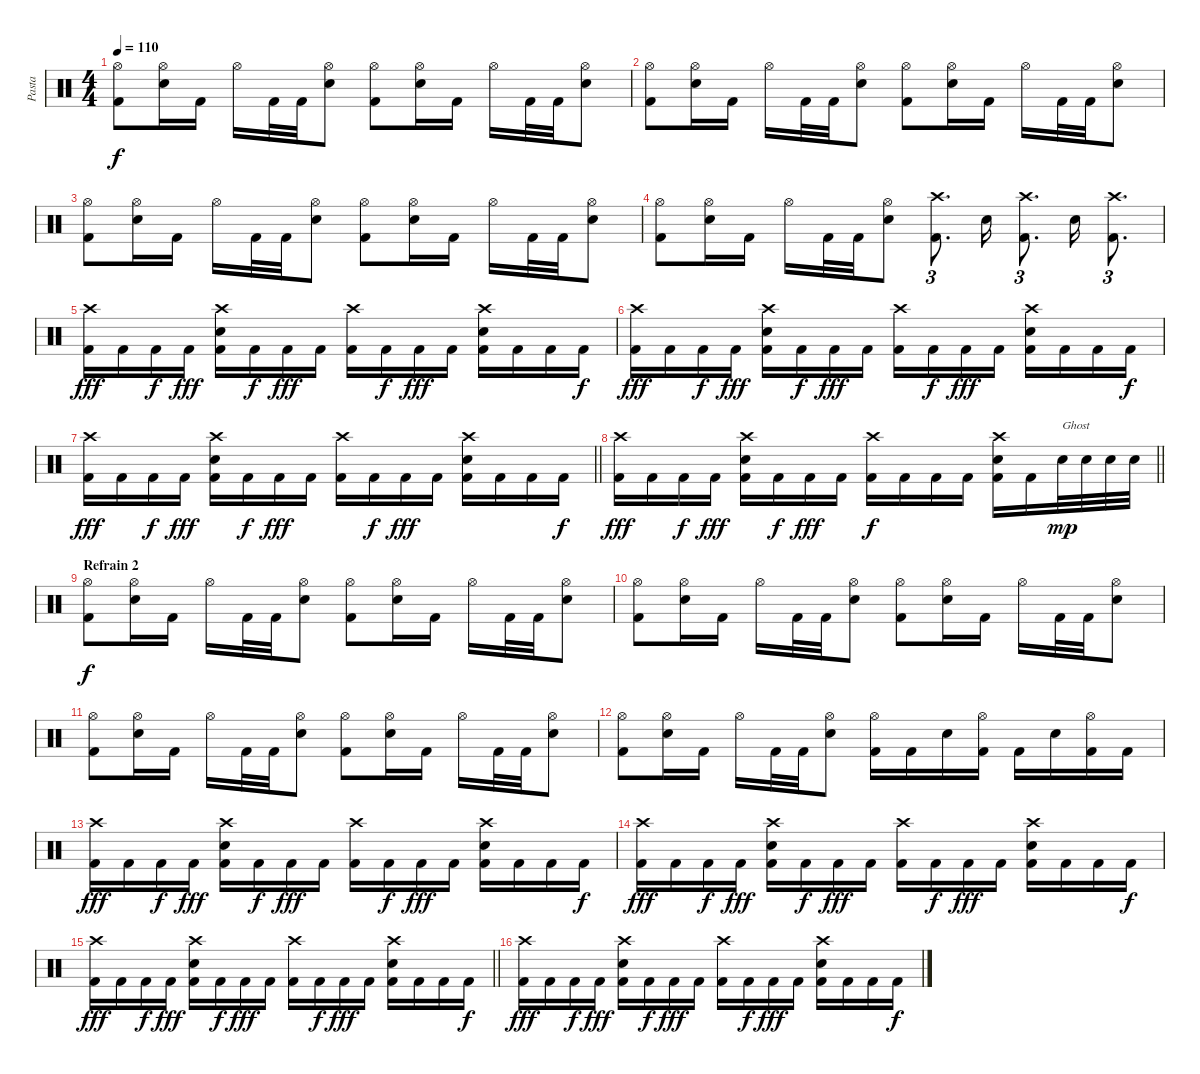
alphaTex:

\track ("Pasta" "Pasta") {instrument percussion}
\staff {score}
\articulation defaults
\ts (4 4)
\tempo 110
\clef neutral
\ks c
("Hi-Hat (open)" "Kick (hit) 2").8{dy f} ("Hi-Hat (open)" "Electric Snare (hit)").16 "Kick (hit) 2".16 "Hi-Hat (open)".16 "Kick (hit) 2".32 "Kick (hit) 2".32 ("Hi-Hat (open)" "Electric Snare (hit)").8 ("Hi-Hat (open)" "Kick (hit) 2").8 ("Hi-Hat (open)" "Electric Snare (hit)").16 "Kick (hit) 2".16 "Hi-Hat (open)".16 "Kick (hit) 2".32 "Kick (hit) 2".32 ("Hi-Hat (open)" "Electric Snare (hit)").8 |
("Hi-Hat (open)" "Kick (hit) 2").8 ("Hi-Hat (open)" "Electric Snare (hit)").16 "Kick (hit) 2".16 "Hi-Hat (open)".16 "Kick (hit) 2".32 "Kick (hit) 2".32 ("Hi-Hat (open)" "Electric Snare (hit)").8 ("Hi-Hat (open)" "Kick (hit) 2").8 ("Hi-Hat (open)" "Electric Snare (hit)").16 "Kick (hit) 2".16 "Hi-Hat (open)".16 "Kick (hit) 2".32 "Kick (hit) 2".32 ("Hi-Hat (open)" "Electric Snare (hit)").8 |
("Hi-Hat (open)" "Kick (hit) 2").8 ("Hi-Hat (open)" "Electric Snare (hit)").16 "Kick (hit) 2".16 "Hi-Hat (open)".16 "Kick (hit) 2".32 "Kick (hit) 2".32 ("Hi-Hat (open)" "Electric Snare (hit)").8 ("Hi-Hat (open)" "Kick (hit) 2").8 ("Hi-Hat (open)" "Electric Snare (hit)").16 "Kick (hit) 2".16 "Hi-Hat (open)".16 "Kick (hit) 2".32 "Kick (hit) 2".32 ("Hi-Hat (open)" "Electric Snare (hit)").8 |
("Hi-Hat (open)" "Kick (hit) 2").8 ("Hi-Hat (open)" "Electric Snare (hit)").16 "Kick (hit) 2".16 "Hi-Hat (open)".16 "Kick (hit) 2".32 "Kick (hit) 2".32 ("Hi-Hat (open)" "Electric Snare (hit)").8 ("Crash high (hit)" "Kick (hit) 2").8{d tu (3 2)} "Electric Snare (hit)".16 ("Crash high (hit)" "Kick (hit) 2").8{d tu (3 2)} "Electric Snare (hit)".16 ("Crash high (hit)" "Kick (hit) 2").8{d tu (3 2)} |
("Crash high (hit)" "Kick (hit) 2").16{dy fff} "Kick (hit) 2".16 "Kick (hit) 2".16{dy f} "Kick (hit) 2".16{dy fff} ("Crash high (hit)" "Electric Snare (hit)" "Kick (hit) 2").16 "Kick (hit) 2".16{dy f} "Kick (hit) 2".16{dy fff} "Kick (hit) 2".16 ("Crash high (hit)" "Kick (hit) 2").16 "Kick (hit) 2".16{dy f} "Kick (hit) 2".16{dy fff} "Kick (hit) 2".16 ("Crash high (hit)" "Electric Snare (hit)" "Kick (hit) 2").16 "Kick (hit) 2".16 "Kick (hit) 2".16 "Kick (hit) 2".16{dy f} |
("Crash high (hit)" "Kick (hit) 2").16{dy fff} "Kick (hit) 2".16 "Kick (hit) 2".16{dy f} "Kick (hit) 2".16{dy fff} ("Crash high (hit)" "Electric Snare (hit)" "Kick (hit) 2").16 "Kick (hit) 2".16{dy f} "Kick (hit) 2".16{dy fff} "Kick (hit) 2".16 ("Crash high (hit)" "Kick (hit) 2").16 "Kick (hit) 2".16{dy f} "Kick (hit) 2".16{dy fff} "Kick (hit) 2".16 ("Crash high (hit)" "Electric Snare (hit)" "Kick (hit) 2").16 "Kick (hit) 2".16 "Kick (hit) 2".16 "Kick (hit) 2".16{dy f} |
\barLineRight lightlight
("Crash high (hit)" "Kick (hit) 2").16{dy fff} "Kick (hit) 2".16 "Kick (hit) 2".16{dy f} "Kick (hit) 2".16{dy fff} ("Crash high (hit)" "Electric Snare (hit)" "Kick (hit) 2").16 "Kick (hit) 2".16{dy f} "Kick (hit) 2".16{dy fff} "Kick (hit) 2".16 ("Crash high (hit)" "Kick (hit) 2").16 "Kick (hit) 2".16{dy f} "Kick (hit) 2".16{dy fff} "Kick (hit) 2".16 ("Crash high (hit)" "Electric Snare (hit)" "Kick (hit) 2").16 "Kick (hit) 2".16 "Kick (hit) 2".16 "Kick (hit) 2".16{dy f} |
\barLineRight lightlight
("Crash high (hit)" "Kick (hit) 2").16{dy fff} "Kick (hit) 2".16 "Kick (hit) 2".16{dy f} "Kick (hit) 2".16{dy fff} ("Crash high (hit)" "Electric Snare (hit)" "Kick (hit) 2").16 "Kick (hit) 2".16{dy f} "Kick (hit) 2".16{dy fff} "Kick (hit) 2".16 ("Crash high (hit)" "Kick (hit) 2").16{dy f} "Kick (hit) 2".16 "Kick (hit) 2".16 "Kick (hit) 2".16 ("Crash high (hit)" "Electric Snare (hit)" "Kick (hit) 2").16 "Kick (hit) 2".16 "Electric Snare (hit)".32{txt "Ghost" dy mp} "Electric Snare (hit)".32 "Electric Snare (hit)".32 "Electric Snare (hit)".32 |
\section ("" "Refrain 2")
("Hi-Hat (open)" "Kick (hit) 2").8{dy f} ("Hi-Hat (open)" "Electric Snare (hit)").16 "Kick (hit) 2".16 "Hi-Hat (open)".16 "Kick (hit) 2".32 "Kick (hit) 2".32 ("Hi-Hat (open)" "Electric Snare (hit)").8 ("Hi-Hat (open)" "Kick (hit) 2").8 ("Hi-Hat (open)" "Electric Snare (hit)").16 "Kick (hit) 2".16 "Hi-Hat (open)".16 "Kick (hit) 2".32 "Kick (hit) 2".32 ("Hi-Hat (open)" "Electric Snare (hit)").8 |
("Hi-Hat (open)" "Kick (hit) 2").8 ("Hi-Hat (open)" "Electric Snare (hit)").16 "Kick (hit) 2".16 "Hi-Hat (open)".16 "Kick (hit) 2".32 "Kick (hit) 2".32 ("Hi-Hat (open)" "Electric Snare (hit)").8 ("Hi-Hat (open)" "Kick (hit) 2").8 ("Hi-Hat (open)" "Electric Snare (hit)").16 "Kick (hit) 2".16 "Hi-Hat (open)".16 "Kick (hit) 2".32 "Kick (hit) 2".32 ("Hi-Hat (open)" "Electric Snare (hit)").8 |
("Hi-Hat (open)" "Kick (hit) 2").8 ("Hi-Hat (open)" "Electric Snare (hit)").16 "Kick (hit) 2".16 "Hi-Hat (open)".16 "Kick (hit) 2".32 "Kick (hit) 2".32 ("Hi-Hat (open)" "Electric Snare (hit)").8 ("Hi-Hat (open)" "Kick (hit) 2").8 ("Hi-Hat (open)" "Electric Snare (hit)").16 "Kick (hit) 2".16 "Hi-Hat (open)".16 "Kick (hit) 2".32 "Kick (hit) 2".32 ("Hi-Hat (open)" "Electric Snare (hit)").8 |
("Hi-Hat (open)" "Kick (hit) 2").8 ("Hi-Hat (open)" "Electric Snare (hit)").16 "Kick (hit) 2".16 "Hi-Hat (open)".16 "Kick (hit) 2".32 "Kick (hit) 2".32 ("Hi-Hat (open)" "Electric Snare (hit)").8 ("Hi-Hat (open)" "Kick (hit) 2").16 "Kick (hit) 2".16 "Electric Snare (hit)".16 ("Hi-Hat (open)" "Kick (hit) 2").16 "Kick (hit) 2".16 "Electric Snare (hit)".16 ("Hi-Hat (open)" "Kick (hit) 2").16 "Kick (hit) 2".16 |
("Crash high (hit)" "Kick (hit) 2").16{dy fff} "Kick (hit) 2".16 "Kick (hit) 2".16{dy f} "Kick (hit) 2".16{dy fff} ("Crash high (hit)" "Electric Snare (hit)" "Kick (hit) 2").16 "Kick (hit) 2".16{dy f} "Kick (hit) 2".16{dy fff} "Kick (hit) 2".16 ("Crash high (hit)" "Kick (hit) 2").16 "Kick (hit) 2".16{dy f} "Kick (hit) 2".16{dy fff} "Kick (hit) 2".16 ("Crash high (hit)" "Electric Snare (hit)" "Kick (hit) 2").16 "Kick (hit) 2".16 "Kick (hit) 2".16 "Kick (hit) 2".16{dy f} |
("Crash high (hit)" "Kick (hit) 2").16{dy fff} "Kick (hit) 2".16 "Kick (hit) 2".16{dy f} "Kick (hit) 2".16{dy fff} ("Crash high (hit)" "Electric Snare (hit)" "Kick (hit) 2").16 "Kick (hit) 2".16{dy f} "Kick (hit) 2".16{dy fff} "Kick (hit) 2".16 ("Crash high (hit)" "Kick (hit) 2").16 "Kick (hit) 2".16{dy f} "Kick (hit) 2".16{dy fff} "Kick (hit) 2".16 ("Crash high (hit)" "Electric Snare (hit)" "Kick (hit) 2").16 "Kick (hit) 2".16 "Kick (hit) 2".16 "Kick (hit) 2".16{dy f} |
\barLineRight lightlight
("Crash high (hit)" "Kick (hit) 2").16{dy fff} "Kick (hit) 2".16 "Kick (hit) 2".16{dy f} "Kick (hit) 2".16{dy fff} ("Crash high (hit)" "Electric Snare (hit)" "Kick (hit) 2").16 "Kick (hit) 2".16{dy f} "Kick (hit) 2".16{dy fff} "Kick (hit) 2".16 ("Crash high (hit)" "Kick (hit) 2").16 "Kick (hit) 2".16{dy f} "Kick (hit) 2".16{dy fff} "Kick (hit) 2".16 ("Crash high (hit)" "Electric Snare (hit)" "Kick (hit) 2").16 "Kick (hit) 2".16 "Kick (hit) 2".16 "Kick (hit) 2".16{dy f} |
("Crash high (hit)" "Kick (hit) 2").16{dy fff} "Kick (hit) 2".16 "Kick (hit) 2".16{dy f} "Kick (hit) 2".16{dy fff} ("Crash high (hit)" "Electric Snare (hit)" "Kick (hit) 2").16 "Kick (hit) 2".16{dy f} "Kick (hit) 2".16{dy fff} "Kick (hit) 2".16 ("Crash high (hit)" "Kick (hit) 2").16 "Kick (hit) 2".16{dy f} "Kick (hit) 2".16{dy fff} "Kick (hit) 2".16 ("Crash high (hit)" "Electric Snare (hit)" "Kick (hit) 2").16 "Kick (hit) 2".16 "Kick (hit) 2".16 "Kick (hit) 2".16{dy f}
